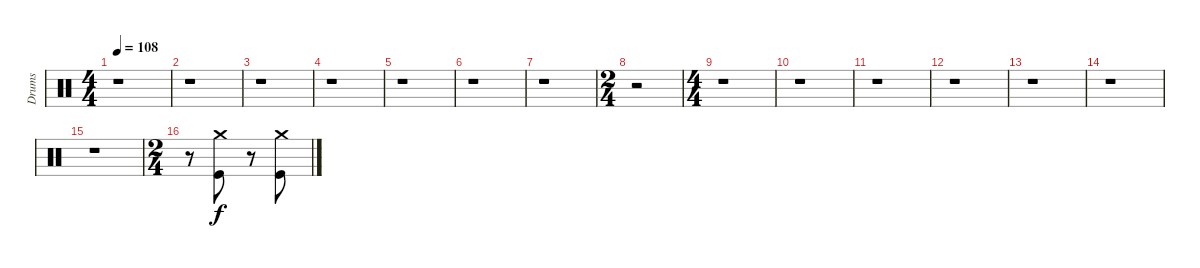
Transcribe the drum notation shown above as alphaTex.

\track ("Drums" "Drums") {instrument percussion}
\staff {score}
\articulation defaults
\ts (4 4)
\tempo 108
\clef neutral
\ks c
r.1{dy f} |
r.1 |
r.1 |
r.1 |
r.1 |
r.1 |
r.1 |
\ts (2 4)
r.2 |
\ts (4 4)
r.1 |
r.1 |
r.1 |
r.1 |
r.1 |
r.1 |
r.1 |
\ts (2 4)
r.8 ("Kick (hit)" "Crash medium (hit)").8 r.8 ("Kick (hit)" "Crash medium (hit)").8
